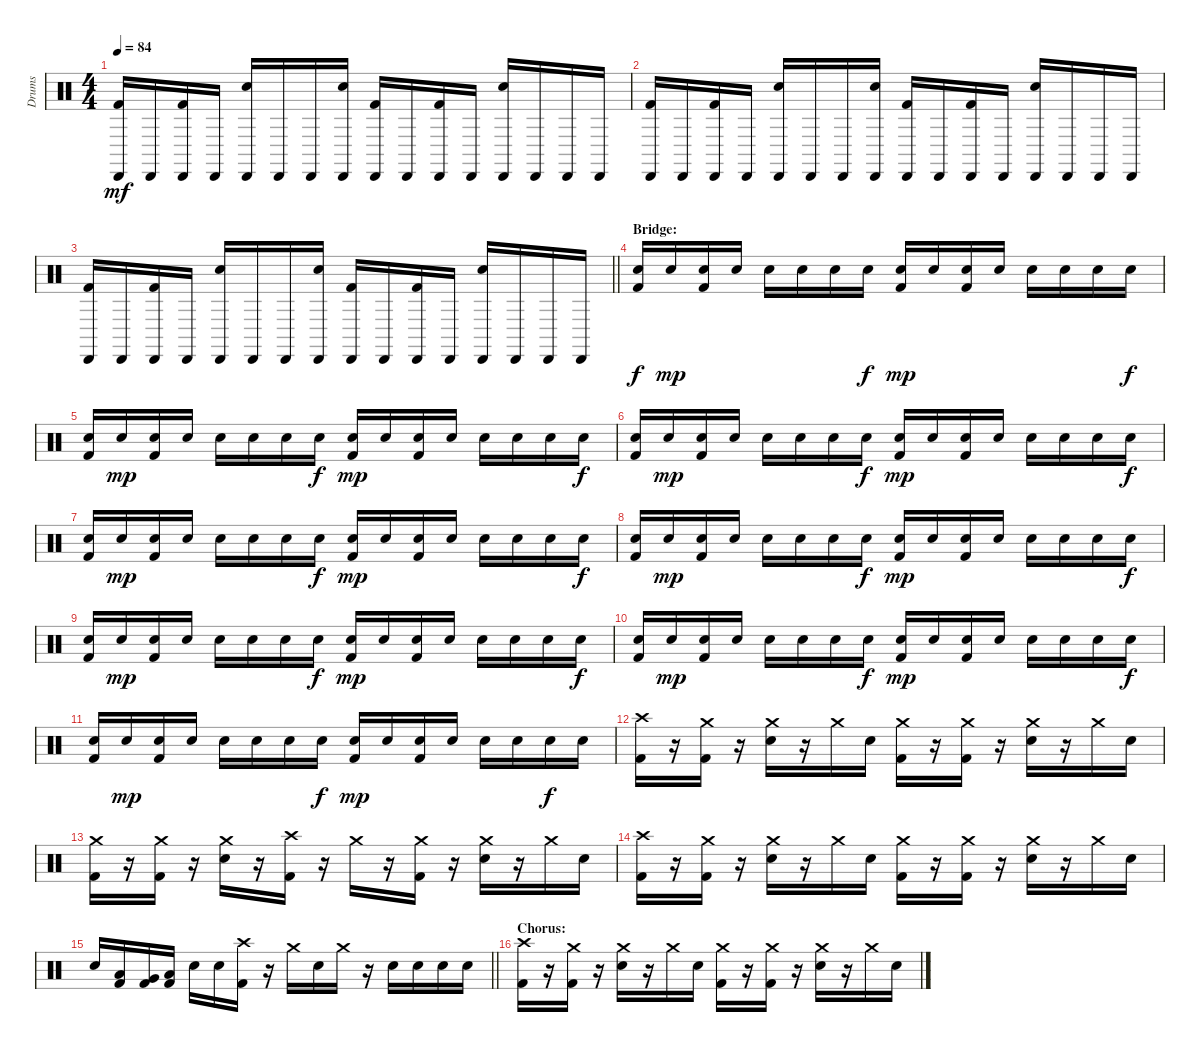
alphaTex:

\track ("Drums" "Drums") {instrument percussion}
\staff {score}
\articulation defaults
\ts (4 4)
\tempo 84
\clef neutral
\ks c
("Cabasa (hit)" "Kick (hit) 2").16{dy mf} "Cabasa (hit)".16 ("Cabasa (hit)" "Kick (hit) 2").16 "Cabasa (hit)".16 ("Cabasa (hit)" "Electric Snare (hit)").16 "Cabasa (hit)".16 "Cabasa (hit)".16 ("Cabasa (hit)" "Electric Snare (hit)").16 ("Cabasa (hit)" "Kick (hit) 2").16 "Cabasa (hit)".16 ("Cabasa (hit)" "Kick (hit) 2").16 "Cabasa (hit)".16 ("Cabasa (hit)" "Electric Snare (hit)").16 "Cabasa (hit)".16 "Cabasa (hit)".16 "Cabasa (hit)".16 |
("Cabasa (hit)" "Kick (hit) 2").16 "Cabasa (hit)".16 ("Cabasa (hit)" "Kick (hit) 2").16 "Cabasa (hit)".16 ("Cabasa (hit)" "Electric Snare (hit)").16 "Cabasa (hit)".16 "Cabasa (hit)".16 ("Cabasa (hit)" "Electric Snare (hit)").16 ("Cabasa (hit)" "Kick (hit) 2").16 "Cabasa (hit)".16 ("Cabasa (hit)" "Kick (hit) 2").16 "Cabasa (hit)".16 ("Cabasa (hit)" "Electric Snare (hit)").16 "Cabasa (hit)".16 "Cabasa (hit)".16 "Cabasa (hit)".16 |
\barLineRight lightlight
("Cabasa (hit)" "Kick (hit) 2").16 "Cabasa (hit)".16 ("Cabasa (hit)" "Kick (hit) 2").16 "Cabasa (hit)".16 ("Cabasa (hit)" "Electric Snare (hit)").16 "Cabasa (hit)".16 "Cabasa (hit)".16 ("Cabasa (hit)" "Electric Snare (hit)").16 ("Cabasa (hit)" "Kick (hit) 2").16 "Cabasa (hit)".16 ("Cabasa (hit)" "Kick (hit) 2").16 "Cabasa (hit)".16 ("Cabasa (hit)" "Electric Snare (hit)").16 "Cabasa (hit)".16 "Cabasa (hit)".16 "Cabasa (hit)".16 |
\section ("" "Bridge:")
("Electric Snare (hit)" "Kick (hit) 2").16{dy f} "Electric Snare (hit)".16{dy mp} ("Electric Snare (hit)" "Kick (hit) 2").16 "Electric Snare (hit)".16 "Electric Snare (hit)".16 "Electric Snare (hit)".16 "Electric Snare (hit)".16 "Electric Snare (hit)".16{dy f} ("Electric Snare (hit)" "Kick (hit) 2").16{dy mp} "Electric Snare (hit)".16 ("Electric Snare (hit)" "Kick (hit) 2").16 "Electric Snare (hit)".16 "Electric Snare (hit)".16 "Electric Snare (hit)".16 "Electric Snare (hit)".16 "Electric Snare (hit)".16{dy f} |
("Electric Snare (hit)" "Kick (hit) 2").16 "Electric Snare (hit)".16{dy mp} ("Electric Snare (hit)" "Kick (hit) 2").16 "Electric Snare (hit)".16 "Electric Snare (hit)".16 "Electric Snare (hit)".16 "Electric Snare (hit)".16 "Electric Snare (hit)".16{dy f} ("Electric Snare (hit)" "Kick (hit) 2").16{dy mp} "Electric Snare (hit)".16 ("Electric Snare (hit)" "Kick (hit) 2").16 "Electric Snare (hit)".16 "Electric Snare (hit)".16 "Electric Snare (hit)".16 "Electric Snare (hit)".16 "Electric Snare (hit)".16{dy f} |
("Electric Snare (hit)" "Kick (hit) 2").16 "Electric Snare (hit)".16{dy mp} ("Electric Snare (hit)" "Kick (hit) 2").16 "Electric Snare (hit)".16 "Electric Snare (hit)".16 "Electric Snare (hit)".16 "Electric Snare (hit)".16 "Electric Snare (hit)".16{dy f} ("Electric Snare (hit)" "Kick (hit) 2").16{dy mp} "Electric Snare (hit)".16 ("Electric Snare (hit)" "Kick (hit) 2").16 "Electric Snare (hit)".16 "Electric Snare (hit)".16 "Electric Snare (hit)".16 "Electric Snare (hit)".16 "Electric Snare (hit)".16{dy f} |
("Electric Snare (hit)" "Kick (hit) 2").16 "Electric Snare (hit)".16{dy mp} ("Electric Snare (hit)" "Kick (hit) 2").16 "Electric Snare (hit)".16 "Electric Snare (hit)".16 "Electric Snare (hit)".16 "Electric Snare (hit)".16 "Electric Snare (hit)".16{dy f} ("Electric Snare (hit)" "Kick (hit) 2").16{dy mp} "Electric Snare (hit)".16 ("Electric Snare (hit)" "Kick (hit) 2").16 "Electric Snare (hit)".16 "Electric Snare (hit)".16 "Electric Snare (hit)".16 "Electric Snare (hit)".16 "Electric Snare (hit)".16{dy f} |
("Electric Snare (hit)" "Kick (hit) 2").16 "Electric Snare (hit)".16{dy mp} ("Electric Snare (hit)" "Kick (hit) 2").16 "Electric Snare (hit)".16 "Electric Snare (hit)".16 "Electric Snare (hit)".16 "Electric Snare (hit)".16 "Electric Snare (hit)".16{dy f} ("Electric Snare (hit)" "Kick (hit) 2").16{dy mp} "Electric Snare (hit)".16 ("Electric Snare (hit)" "Kick (hit) 2").16 "Electric Snare (hit)".16 "Electric Snare (hit)".16 "Electric Snare (hit)".16 "Electric Snare (hit)".16 "Electric Snare (hit)".16{dy f} |
("Electric Snare (hit)" "Kick (hit) 2").16 "Electric Snare (hit)".16{dy mp} ("Electric Snare (hit)" "Kick (hit) 2").16 "Electric Snare (hit)".16 "Electric Snare (hit)".16 "Electric Snare (hit)".16 "Electric Snare (hit)".16 "Electric Snare (hit)".16{dy f} ("Electric Snare (hit)" "Kick (hit) 2").16{dy mp} "Electric Snare (hit)".16 ("Electric Snare (hit)" "Kick (hit) 2").16 "Electric Snare (hit)".16 "Electric Snare (hit)".16 "Electric Snare (hit)".16 "Electric Snare (hit)".16 "Electric Snare (hit)".16{dy f} |
("Electric Snare (hit)" "Kick (hit) 2").16 "Electric Snare (hit)".16{dy mp} ("Electric Snare (hit)" "Kick (hit) 2").16 "Electric Snare (hit)".16 "Electric Snare (hit)".16 "Electric Snare (hit)".16 "Electric Snare (hit)".16 "Electric Snare (hit)".16{dy f} ("Electric Snare (hit)" "Kick (hit) 2").16{dy mp} "Electric Snare (hit)".16 ("Electric Snare (hit)" "Kick (hit) 2").16 "Electric Snare (hit)".16 "Electric Snare (hit)".16 "Electric Snare (hit)".16 "Electric Snare (hit)".16 "Electric Snare (hit)".16{dy f} |
("Electric Snare (hit)" "Kick (hit) 2").16 "Electric Snare (hit)".16{dy mp} ("Electric Snare (hit)" "Kick (hit) 2").16 "Electric Snare (hit)".16 "Electric Snare (hit)".16 "Electric Snare (hit)".16 "Electric Snare (hit)".16 "Electric Snare (hit)".16{dy f} ("Electric Snare (hit)" "Kick (hit) 2").16{dy mp} "Electric Snare (hit)".16 ("Electric Snare (hit)" "Kick (hit) 2").16 "Electric Snare (hit)".16 "Electric Snare (hit)".16 "Electric Snare (hit)".16 "Electric Snare (hit)".16{dy f} "Electric Snare (hit)".16 |
("Crash high (hit)" "Kick (hit) 2").16 r.16 ("Crash medium (hit)" "Kick (hit) 2").16 r.16 ("Crash medium (hit)" "Electric Snare (hit)").16 r.16 "Crash medium (hit)".16 "Electric Snare (hit)".16 ("Crash medium (hit)" "Kick (hit) 2").16 r.16 ("Crash medium (hit)" "Kick (hit) 2").16 r.16 ("Crash medium (hit)" "Electric Snare (hit)").16 r.16 "Crash medium (hit)".16 "Electric Snare (hit)".16 |
("Crash medium (hit)" "Kick (hit) 2").16 r.16 ("Crash medium (hit)" "Kick (hit) 2").16 r.16 ("Crash medium (hit)" "Electric Snare (hit)").16 r.16 ("Crash high (hit)" "Kick (hit) 2").16 r.16 "Crash medium (hit)".16 r.16 ("Crash medium (hit)" "Kick (hit) 2").16 r.16 ("Crash medium (hit)" "Electric Snare (hit)").16 r.16 "Crash medium (hit)".16 "Electric Snare (hit)".16 |
("Crash high (hit)" "Kick (hit) 2").16 r.16 ("Crash medium (hit)" "Kick (hit) 2").16 r.16 ("Crash medium (hit)" "Electric Snare (hit)").16 r.16 "Crash medium (hit)".16 "Electric Snare (hit)".16 ("Crash medium (hit)" "Kick (hit) 2").16 r.16 ("Crash medium (hit)" "Kick (hit) 2").16 r.16 ("Crash medium (hit)" "Electric Snare (hit)").16 r.16 "Crash medium (hit)".16 "Electric Snare (hit)".16 |
\barLineRight lightlight "Electric Snare (hit)".16
("Low Tom (hit)" "Kick (hit) 2").16 ("Very Low Tom (hit)" "Kick (hit) 2").16 ("Low Floor Tom (hit)" "Kick (hit) 2").16 "Electric Snare (hit)".16 "Electric Snare (hit)".16 ("Crash high (hit)" "Kick (hit) 2").16 r.16 "Crash medium (hit)".16 "Electric Snare (hit)".16 "Crash medium (hit)".16 r.16 "Electric Snare (hit)".16 "Electric Snare (hit)".16 "Electric Snare (hit)".16 "Electric Snare (hit)".16 |
\section ("" "Chorus:")
("Crash high (hit)" "Kick (hit) 2").16 r.16 ("Crash medium (hit)" "Kick (hit) 2").16 r.16 ("Crash medium (hit)" "Electric Snare (hit)").16 r.16 "Crash medium (hit)".16 "Electric Snare (hit)".16 ("Crash medium (hit)" "Kick (hit) 2").16 r.16 ("Crash medium (hit)" "Kick (hit) 2").16 r.16 ("Crash medium (hit)" "Electric Snare (hit)").16 r.16 "Crash medium (hit)".16 "Electric Snare (hit)".16
